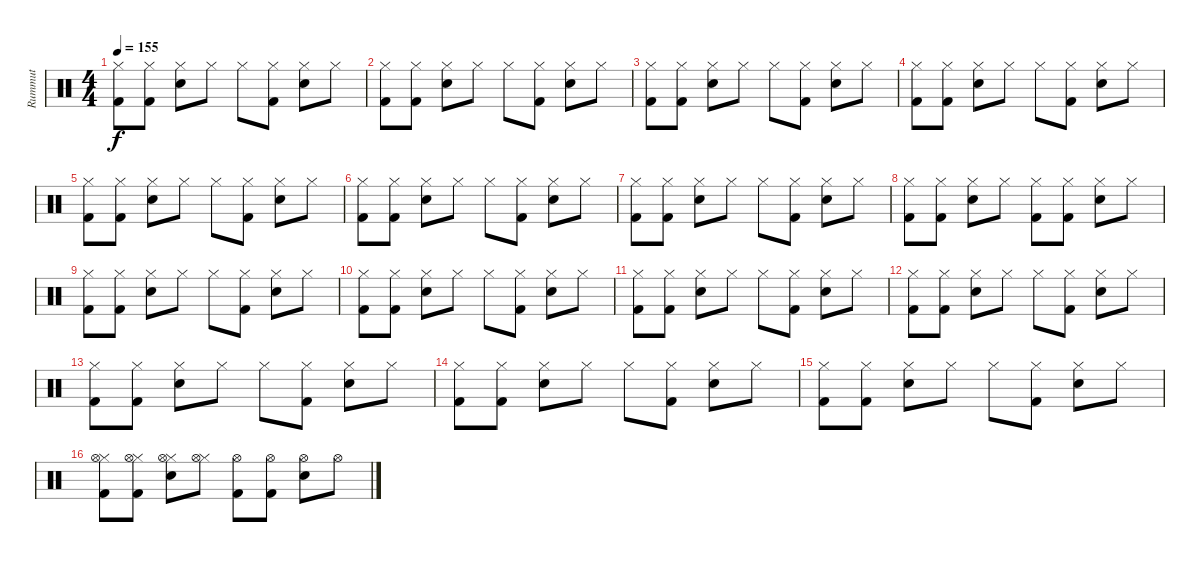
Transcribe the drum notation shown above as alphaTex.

\track ("Rummut" "Rummut") {instrument percussion}
\staff {score}
\articulation defaults
\ts (4 4)
\tempo 155
\clef neutral
\ks c
("Kick (hit) 2" "Hi-Hat (closed)").8{dy f} ("Kick (hit) 2" "Hi-Hat (closed)").8 ("Electric Snare (hit)" "Hi-Hat (closed)").8 "Hi-Hat (closed)".8 "Hi-Hat (closed)".8 ("Kick (hit) 2" "Hi-Hat (closed)").8 ("Electric Snare (hit)" "Hi-Hat (closed)").8 "Hi-Hat (closed)".8 |
("Kick (hit) 2" "Hi-Hat (closed)").8 ("Kick (hit) 2" "Hi-Hat (closed)").8 ("Electric Snare (hit)" "Hi-Hat (closed)").8 "Hi-Hat (closed)".8 "Hi-Hat (closed)".8 ("Kick (hit) 2" "Hi-Hat (closed)").8 ("Electric Snare (hit)" "Hi-Hat (closed)").8 "Hi-Hat (closed)".8 |
("Kick (hit) 2" "Hi-Hat (closed)").8 ("Kick (hit) 2" "Hi-Hat (closed)").8 ("Electric Snare (hit)" "Hi-Hat (closed)").8 "Hi-Hat (closed)".8 "Hi-Hat (closed)".8 ("Kick (hit) 2" "Hi-Hat (closed)").8 ("Electric Snare (hit)" "Hi-Hat (closed)").8 "Hi-Hat (closed)".8 |
("Kick (hit) 2" "Hi-Hat (closed)").8 ("Kick (hit) 2" "Hi-Hat (closed)").8 ("Electric Snare (hit)" "Hi-Hat (closed)").8 "Hi-Hat (closed)".8 "Hi-Hat (closed)".8 ("Kick (hit) 2" "Hi-Hat (closed)").8 ("Electric Snare (hit)" "Hi-Hat (closed)").8 "Hi-Hat (closed)".8 |
("Kick (hit) 2" "Hi-Hat (closed)").8 ("Kick (hit) 2" "Hi-Hat (closed)").8 ("Electric Snare (hit)" "Hi-Hat (closed)").8 "Hi-Hat (closed)".8 "Hi-Hat (closed)".8 ("Kick (hit) 2" "Hi-Hat (closed)").8 ("Electric Snare (hit)" "Hi-Hat (closed)").8 "Hi-Hat (closed)".8 |
("Kick (hit) 2" "Hi-Hat (closed)").8 ("Kick (hit) 2" "Hi-Hat (closed)").8 ("Electric Snare (hit)" "Hi-Hat (closed)").8 "Hi-Hat (closed)".8 "Hi-Hat (closed)".8 ("Kick (hit) 2" "Hi-Hat (closed)").8 ("Electric Snare (hit)" "Hi-Hat (closed)").8 "Hi-Hat (closed)".8 |
("Kick (hit) 2" "Hi-Hat (closed)").8 ("Kick (hit) 2" "Hi-Hat (closed)").8 ("Electric Snare (hit)" "Hi-Hat (closed)").8 "Hi-Hat (closed)".8 "Hi-Hat (closed)".8 ("Kick (hit) 2" "Hi-Hat (closed)").8 ("Electric Snare (hit)" "Hi-Hat (closed)").8 "Hi-Hat (closed)".8 |
("Kick (hit) 2" "Hi-Hat (closed)").8 ("Kick (hit) 2" "Hi-Hat (closed)").8 ("Electric Snare (hit)" "Hi-Hat (closed)").8 "Hi-Hat (closed)".8 ("Kick (hit) 2" "Hi-Hat (closed)").8 ("Kick (hit) 2" "Hi-Hat (closed)").8 ("Electric Snare (hit)" "Hi-Hat (closed)").8 "Hi-Hat (closed)".8 |
("Kick (hit) 2" "Hi-Hat (closed)").8 ("Kick (hit) 2" "Hi-Hat (closed)").8 ("Electric Snare (hit)" "Hi-Hat (closed)").8 "Hi-Hat (closed)".8 "Hi-Hat (closed)".8 ("Kick (hit) 2" "Hi-Hat (closed)").8 ("Electric Snare (hit)" "Hi-Hat (closed)").8 "Hi-Hat (closed)".8 |
("Kick (hit) 2" "Hi-Hat (closed)").8 ("Kick (hit) 2" "Hi-Hat (closed)").8 ("Electric Snare (hit)" "Hi-Hat (closed)").8 "Hi-Hat (closed)".8 "Hi-Hat (closed)".8 ("Kick (hit) 2" "Hi-Hat (closed)").8 ("Electric Snare (hit)" "Hi-Hat (closed)").8 "Hi-Hat (closed)".8 |
("Kick (hit) 2" "Hi-Hat (closed)").8 ("Kick (hit) 2" "Hi-Hat (closed)").8 ("Electric Snare (hit)" "Hi-Hat (closed)").8 "Hi-Hat (closed)".8 "Hi-Hat (closed)".8 ("Kick (hit) 2" "Hi-Hat (closed)").8 ("Electric Snare (hit)" "Hi-Hat (closed)").8 "Hi-Hat (closed)".8 |
("Kick (hit) 2" "Hi-Hat (closed)").8 ("Kick (hit) 2" "Hi-Hat (closed)").8 ("Electric Snare (hit)" "Hi-Hat (closed)").8 "Hi-Hat (closed)".8 "Hi-Hat (closed)".8 ("Kick (hit) 2" "Hi-Hat (closed)").8 ("Electric Snare (hit)" "Hi-Hat (closed)").8 "Hi-Hat (closed)".8 |
("Kick (hit) 2" "Hi-Hat (closed)").8 ("Kick (hit) 2" "Hi-Hat (closed)").8 ("Electric Snare (hit)" "Hi-Hat (closed)").8 "Hi-Hat (closed)".8 "Hi-Hat (closed)".8 ("Kick (hit) 2" "Hi-Hat (closed)").8 ("Electric Snare (hit)" "Hi-Hat (closed)").8 "Hi-Hat (closed)".8 |
("Kick (hit) 2" "Hi-Hat (closed)").8 ("Kick (hit) 2" "Hi-Hat (closed)").8 ("Electric Snare (hit)" "Hi-Hat (closed)").8 "Hi-Hat (closed)".8 "Hi-Hat (closed)".8 ("Kick (hit) 2" "Hi-Hat (closed)").8 ("Electric Snare (hit)" "Hi-Hat (closed)").8 "Hi-Hat (closed)".8 |
("Kick (hit) 2" "Hi-Hat (closed)").8 ("Kick (hit) 2" "Hi-Hat (closed)").8 ("Electric Snare (hit)" "Hi-Hat (closed)").8 "Hi-Hat (closed)".8 "Hi-Hat (closed)".8 ("Kick (hit) 2" "Hi-Hat (closed)").8 ("Electric Snare (hit)" "Hi-Hat (closed)").8 "Hi-Hat (closed)".8 |
("Kick (hit) 2" "Hi-Hat (closed)" "Hi-Hat (open)").8 ("Kick (hit) 2" "Hi-Hat (closed)" "Hi-Hat (open)").8 ("Electric Snare (hit)" "Hi-Hat (closed)" "Hi-Hat (open)").8 ("Hi-Hat (closed)" "Hi-Hat (open)").8 ("Kick (hit) 2" "Hi-Hat (open)").8 ("Kick (hit) 2" "Hi-Hat (open)").8 ("Electric Snare (hit)" "Hi-Hat (open)").8 "Hi-Hat (open)".8
